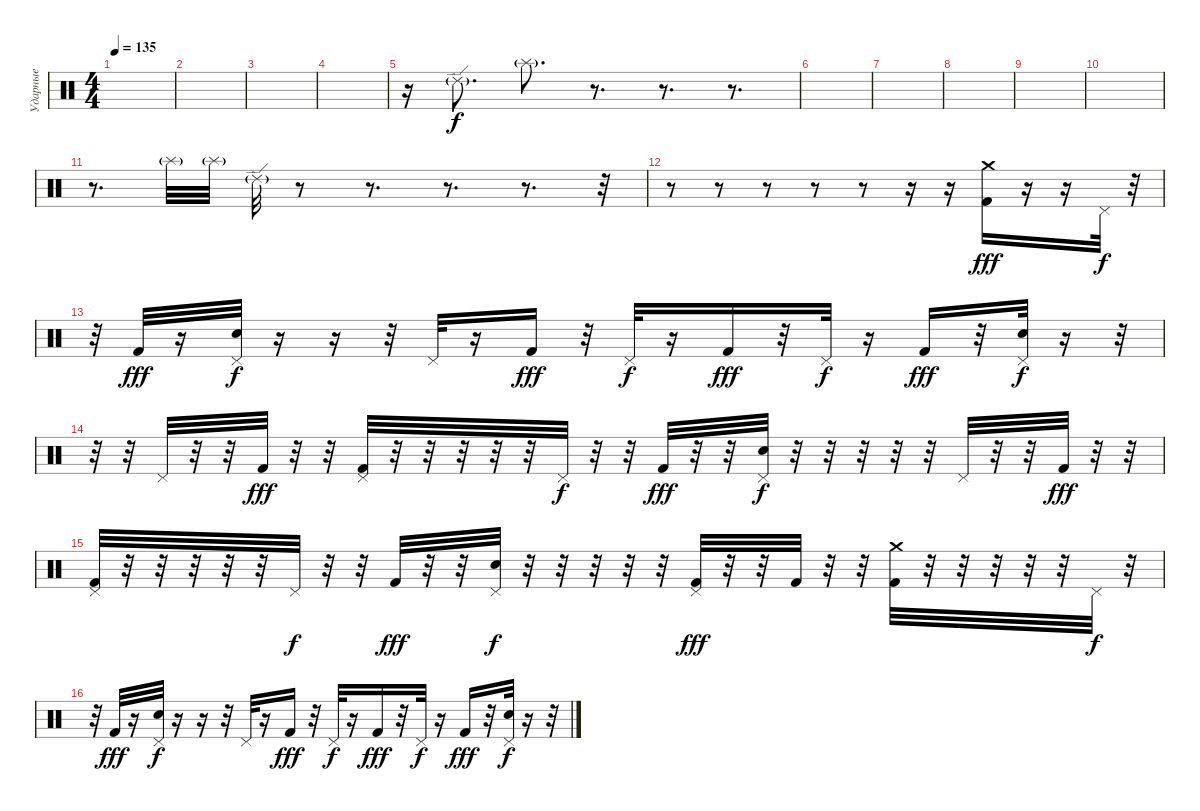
\track ("Ударные" "Ударные") {instrument percussion}
\staff {score}
\articulation defaults
\ts (4 4)
\tempo 135
\clef neutral
\ks c
|
|
|
|
r.16 "Ride (edge) 2"{g}.8{d} "Splash (hit)"{g}.8{d} r.8{d} r.8{d} r.8{d} |
|
|
|
|
|
r.8{d} "Splash (hit)"{g}.32 "Splash (hit)"{g}.32 "Ride (edge) 2"{g}.32 r.8 r.8{d} r.8{d} r.8{d} r.32 |
r.8 r.8 r.8 r.8 r.8 r.16 r.16 ("Crash medium (hit)" "Kick (hit) 2").16{dy fff} r.16 r.16 "Pedal Hi-Hat (hit)".32{dy f} r.32 |
r.32 "Kick (hit) 2".32{dy fff} r.16 ("Pedal Hi-Hat (hit)" "Snare (hit) 2").32{dy f} r.16 r.16 r.32 "Pedal Hi-Hat (hit)".32 r.16 "Kick (hit) 2".16{dy fff} r.32 "Pedal Hi-Hat (hit)".32{dy f} r.16 "Kick (hit) 2".16{dy fff} r.32 "Pedal Hi-Hat (hit)".32{dy f} r.16 "Kick (hit) 2".16{dy fff} r.32 ("Pedal Hi-Hat (hit)" "Snare (hit) 2").32{dy f} r.16 r.32 |
r.32 r.32 "Pedal Hi-Hat (hit)".32 r.32 r.32 "Kick (hit) 2".32{dy fff} r.32 r.32 ("Pedal Hi-Hat (hit)" "Kick (hit) 2").32 r.32 r.32 r.32 r.32 r.32 "Pedal Hi-Hat (hit)".32{dy f} r.32 r.32 "Kick (hit) 2".32{dy fff} r.32 r.32 ("Pedal Hi-Hat (hit)" "Snare (hit) 2").32{dy f} r.32 r.32 r.32 r.32 r.32 "Pedal Hi-Hat (hit)".32 r.32 r.32 "Kick (hit) 2".32{dy fff} r.32 r.32 |
("Pedal Hi-Hat (hit)" "Kick (hit) 2").32 r.32 r.32 r.32 r.32 r.32 "Pedal Hi-Hat (hit)".32{dy f} r.32 r.32 "Kick (hit) 2".32{dy fff} r.32 r.32 ("Pedal Hi-Hat (hit)" "Snare (hit) 2").32{dy f} r.32 r.32 r.32 r.32 r.32 ("Pedal Hi-Hat (hit)" "Kick (hit) 2").32{dy fff} r.32 r.32 "Kick (hit) 2".32 r.32 r.32 ("Crash medium (hit)" "Kick (hit) 2").32 r.32 r.32 r.32 r.32 r.32 "Pedal Hi-Hat (hit)".32{dy f} r.32 |
r.32 "Kick (hit) 2".32{dy fff} r.16 ("Pedal Hi-Hat (hit)" "Snare (hit) 2").32{dy f} r.16 r.16 r.32 "Pedal Hi-Hat (hit)".32 r.16 "Kick (hit) 2".16{dy fff} r.32 "Pedal Hi-Hat (hit)".32{dy f} r.16 "Kick (hit) 2".16{dy fff} r.32 "Pedal Hi-Hat (hit)".32{dy f} r.16 "Kick (hit) 2".16{dy fff} r.32 ("Pedal Hi-Hat (hit)" "Snare (hit) 2").32{dy f} r.16 r.32
